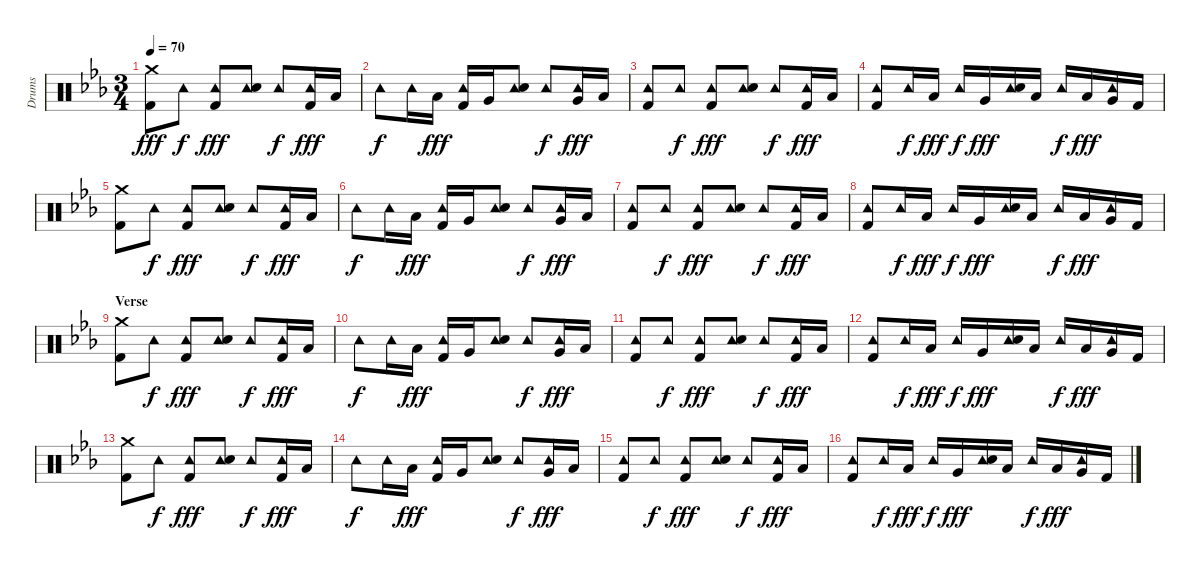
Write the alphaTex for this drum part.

\track ("Drums" "Drums") {instrument percussion}
\staff {score}
\articulation defaults
\ts (3 4)
\tempo 70
\clef neutral
\ks cminor
("Crash medium (hit)" "Kick (hit) 2").8{dy fff} "Tambourine (hit)".8{dy f} ("Tambourine (hit)" "Kick (hit) 2").8{dy fff} ("Tambourine (hit)" "Snare (hit) 2").8 "Tambourine (hit)".8{dy f} ("Tambourine (hit)" "Kick (hit) 2").16{dy fff} "Low Floor Tom (hit)".16 |
"Tambourine (hit)".8{dy f} "Tambourine (hit)".16 "Low Floor Tom (hit)".16{dy fff} ("Tambourine (hit)" "Kick (hit) 2").16 "Very Low Tom (hit)".16 ("Tambourine (hit)" "Snare (hit) 2").8 "Tambourine (hit)".8{dy f} ("Tambourine (hit)" "Very Low Tom (hit)").16{dy fff} "Low Floor Tom (hit)".16 |
("Tambourine (hit)" "Kick (hit) 2").8 "Tambourine (hit)".8{dy f} ("Tambourine (hit)" "Kick (hit) 2").8{dy fff} ("Tambourine (hit)" "Snare (hit) 2").8 "Tambourine (hit)".8{dy f} ("Tambourine (hit)" "Kick (hit) 2").16{dy fff} "Low Floor Tom (hit)".16 |
("Tambourine (hit)" "Kick (hit) 2").8 "Tambourine (hit)".16{dy f} "Low Floor Tom (hit)".16{dy fff} "Tambourine (hit)".16{dy f} "Very Low Tom (hit)".16{dy fff} ("Tambourine (hit)" "Snare (hit) 2").16 "Low Floor Tom (hit)".16 "Tambourine (hit)".16{dy f} "Low Floor Tom (hit)".16{dy fff} ("Tambourine (hit)" "Very Low Tom (hit)").16 "Kick (hit) 2".16 |
("Crash medium (hit)" "Kick (hit) 2").8 "Tambourine (hit)".8{dy f} ("Tambourine (hit)" "Kick (hit) 2").8{dy fff} ("Tambourine (hit)" "Snare (hit) 2").8 "Tambourine (hit)".8{dy f} ("Tambourine (hit)" "Kick (hit) 2").16{dy fff} "Low Floor Tom (hit)".16 |
"Tambourine (hit)".8{dy f} "Tambourine (hit)".16 "Low Floor Tom (hit)".16{dy fff} ("Tambourine (hit)" "Kick (hit) 2").16 "Very Low Tom (hit)".16 ("Tambourine (hit)" "Snare (hit) 2").8 "Tambourine (hit)".8{dy f} ("Tambourine (hit)" "Very Low Tom (hit)").16{dy fff} "Low Floor Tom (hit)".16 |
("Tambourine (hit)" "Kick (hit) 2").8 "Tambourine (hit)".8{dy f} ("Tambourine (hit)" "Kick (hit) 2").8{dy fff} ("Tambourine (hit)" "Snare (hit) 2").8 "Tambourine (hit)".8{dy f} ("Tambourine (hit)" "Kick (hit) 2").16{dy fff} "Low Floor Tom (hit)".16 |
("Tambourine (hit)" "Kick (hit) 2").8 "Tambourine (hit)".16{dy f} "Low Floor Tom (hit)".16{dy fff} "Tambourine (hit)".16{dy f} "Very Low Tom (hit)".16{dy fff} ("Tambourine (hit)" "Snare (hit) 2").16 "Low Floor Tom (hit)".16 "Tambourine (hit)".16{dy f} "Low Floor Tom (hit)".16{dy fff} ("Tambourine (hit)" "Very Low Tom (hit)").16 "Kick (hit) 2".16 |
\section ("" "Verse")
("Crash medium (hit)" "Kick (hit) 2").8 "Tambourine (hit)".8{dy f} ("Tambourine (hit)" "Kick (hit) 2").8{dy fff} ("Tambourine (hit)" "Snare (hit) 2").8 "Tambourine (hit)".8{dy f} ("Tambourine (hit)" "Kick (hit) 2").16{dy fff} "Low Floor Tom (hit)".16 |
"Tambourine (hit)".8{dy f} "Tambourine (hit)".16 "Low Floor Tom (hit)".16{dy fff} ("Tambourine (hit)" "Kick (hit) 2").16 "Very Low Tom (hit)".16 ("Tambourine (hit)" "Snare (hit) 2").8 "Tambourine (hit)".8{dy f} ("Tambourine (hit)" "Very Low Tom (hit)").16{dy fff} "Low Floor Tom (hit)".16 |
("Tambourine (hit)" "Kick (hit) 2").8 "Tambourine (hit)".8{dy f} ("Tambourine (hit)" "Kick (hit) 2").8{dy fff} ("Tambourine (hit)" "Snare (hit) 2").8 "Tambourine (hit)".8{dy f} ("Tambourine (hit)" "Kick (hit) 2").16{dy fff} "Low Floor Tom (hit)".16 |
("Tambourine (hit)" "Kick (hit) 2").8 "Tambourine (hit)".16{dy f} "Low Floor Tom (hit)".16{dy fff} "Tambourine (hit)".16{dy f} "Very Low Tom (hit)".16{dy fff} ("Tambourine (hit)" "Snare (hit) 2").16 "Low Floor Tom (hit)".16 "Tambourine (hit)".16{dy f} "Low Floor Tom (hit)".16{dy fff} ("Tambourine (hit)" "Very Low Tom (hit)").16 "Kick (hit) 2".16 |
("Crash medium (hit)" "Kick (hit) 2").8 "Tambourine (hit)".8{dy f} ("Tambourine (hit)" "Kick (hit) 2").8{dy fff} ("Tambourine (hit)" "Snare (hit) 2").8 "Tambourine (hit)".8{dy f} ("Tambourine (hit)" "Kick (hit) 2").16{dy fff} "Low Floor Tom (hit)".16 |
"Tambourine (hit)".8{dy f} "Tambourine (hit)".16 "Low Floor Tom (hit)".16{dy fff} ("Tambourine (hit)" "Kick (hit) 2").16 "Very Low Tom (hit)".16 ("Tambourine (hit)" "Snare (hit) 2").8 "Tambourine (hit)".8{dy f} ("Tambourine (hit)" "Very Low Tom (hit)").16{dy fff} "Low Floor Tom (hit)".16 |
("Tambourine (hit)" "Kick (hit) 2").8 "Tambourine (hit)".8{dy f} ("Tambourine (hit)" "Kick (hit) 2").8{dy fff} ("Tambourine (hit)" "Snare (hit) 2").8 "Tambourine (hit)".8{dy f} ("Tambourine (hit)" "Kick (hit) 2").16{dy fff} "Low Floor Tom (hit)".16 |
("Tambourine (hit)" "Kick (hit) 2").8 "Tambourine (hit)".16{dy f} "Low Floor Tom (hit)".16{dy fff} "Tambourine (hit)".16{dy f} "Very Low Tom (hit)".16{dy fff} ("Tambourine (hit)" "Snare (hit) 2").16 "Low Floor Tom (hit)".16 "Tambourine (hit)".16{dy f} "Low Floor Tom (hit)".16{dy fff} ("Tambourine (hit)" "Very Low Tom (hit)").16 "Kick (hit) 2".16
